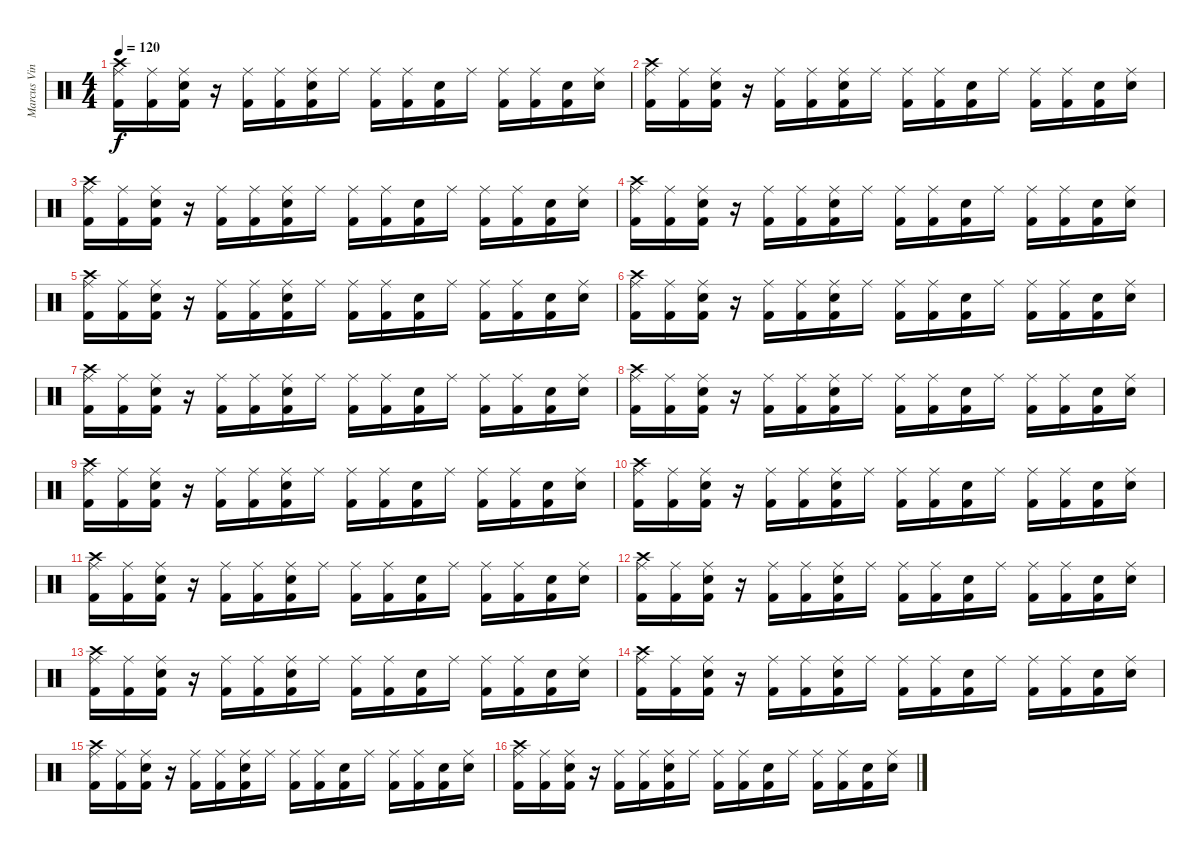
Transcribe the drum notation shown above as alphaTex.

\track ("Marcus Vinicius" "Marcus Vin") {instrument percussion}
\staff {score}
\articulation defaults
\ts (4 4)
\tempo 120
\clef neutral
\ks c
("Kick (hit) 2" "Crash high (hit)" "Ride (middle)").16{dy f} ("Kick (hit) 2" "Ride (middle)").16 ("Kick (hit) 2" "Electric Snare (hit)" "Ride (middle)").16 r.16 ("Kick (hit) 2" "Ride (middle)").16 ("Kick (hit) 2" "Ride (middle)").16 ("Kick (hit) 2" "Electric Snare (hit)" "Ride (middle)").16 "Ride (middle)".16 ("Kick (hit) 2" "Ride (middle)").16 ("Kick (hit) 2" "Ride (middle)").16 ("Kick (hit) 2" "Electric Snare (hit)").16 "Ride (middle)".16 ("Kick (hit) 2" "Ride (middle)").16 ("Kick (hit) 2" "Ride (middle)").16 ("Kick (hit) 2" "Electric Snare (hit)").16 ("Electric Snare (hit)" "Ride (middle)").16 |
("Kick (hit) 2" "Crash high (hit)" "Ride (middle)").16 ("Kick (hit) 2" "Ride (middle)").16 ("Kick (hit) 2" "Electric Snare (hit)" "Ride (middle)").16 r.16 ("Kick (hit) 2" "Ride (middle)").16 ("Kick (hit) 2" "Ride (middle)").16 ("Kick (hit) 2" "Electric Snare (hit)" "Ride (middle)").16 "Ride (middle)".16 ("Kick (hit) 2" "Ride (middle)").16 ("Kick (hit) 2" "Ride (middle)").16 ("Kick (hit) 2" "Electric Snare (hit)").16 "Ride (middle)".16 ("Kick (hit) 2" "Ride (middle)").16 ("Kick (hit) 2" "Ride (middle)").16 ("Kick (hit) 2" "Electric Snare (hit)").16 ("Electric Snare (hit)" "Ride (middle)").16 |
("Kick (hit) 2" "Crash high (hit)" "Ride (middle)").16 ("Kick (hit) 2" "Ride (middle)").16 ("Kick (hit) 2" "Electric Snare (hit)" "Ride (middle)").16 r.16 ("Kick (hit) 2" "Ride (middle)").16 ("Kick (hit) 2" "Ride (middle)").16 ("Kick (hit) 2" "Electric Snare (hit)" "Ride (middle)").16 "Ride (middle)".16 ("Kick (hit) 2" "Ride (middle)").16 ("Kick (hit) 2" "Ride (middle)").16 ("Kick (hit) 2" "Electric Snare (hit)").16 "Ride (middle)".16 ("Kick (hit) 2" "Ride (middle)").16 ("Kick (hit) 2" "Ride (middle)").16 ("Kick (hit) 2" "Electric Snare (hit)").16 ("Electric Snare (hit)" "Ride (middle)").16 |
("Kick (hit) 2" "Crash high (hit)" "Ride (middle)").16 ("Kick (hit) 2" "Ride (middle)").16 ("Kick (hit) 2" "Electric Snare (hit)" "Ride (middle)").16 r.16 ("Kick (hit) 2" "Ride (middle)").16 ("Kick (hit) 2" "Ride (middle)").16 ("Kick (hit) 2" "Electric Snare (hit)" "Ride (middle)").16 "Ride (middle)".16 ("Kick (hit) 2" "Ride (middle)").16 ("Kick (hit) 2" "Ride (middle)").16 ("Kick (hit) 2" "Electric Snare (hit)").16 "Ride (middle)".16 ("Kick (hit) 2" "Ride (middle)").16 ("Kick (hit) 2" "Ride (middle)").16 ("Kick (hit) 2" "Electric Snare (hit)").16 ("Electric Snare (hit)" "Ride (middle)").16 |
("Kick (hit) 2" "Crash high (hit)" "Ride (middle)").16 ("Kick (hit) 2" "Ride (middle)").16 ("Kick (hit) 2" "Electric Snare (hit)" "Ride (middle)").16 r.16 ("Kick (hit) 2" "Ride (middle)").16 ("Kick (hit) 2" "Ride (middle)").16 ("Kick (hit) 2" "Electric Snare (hit)" "Ride (middle)").16 "Ride (middle)".16 ("Kick (hit) 2" "Ride (middle)").16 ("Kick (hit) 2" "Ride (middle)").16 ("Kick (hit) 2" "Electric Snare (hit)").16 "Ride (middle)".16 ("Kick (hit) 2" "Ride (middle)").16 ("Kick (hit) 2" "Ride (middle)").16 ("Kick (hit) 2" "Electric Snare (hit)").16 ("Electric Snare (hit)" "Ride (middle)").16 |
("Kick (hit) 2" "Crash high (hit)" "Ride (middle)").16 ("Kick (hit) 2" "Ride (middle)").16 ("Kick (hit) 2" "Electric Snare (hit)" "Ride (middle)").16 r.16 ("Kick (hit) 2" "Ride (middle)").16 ("Kick (hit) 2" "Ride (middle)").16 ("Kick (hit) 2" "Electric Snare (hit)" "Ride (middle)").16 "Ride (middle)".16 ("Kick (hit) 2" "Ride (middle)").16 ("Kick (hit) 2" "Ride (middle)").16 ("Kick (hit) 2" "Electric Snare (hit)").16 "Ride (middle)".16 ("Kick (hit) 2" "Ride (middle)").16 ("Kick (hit) 2" "Ride (middle)").16 ("Kick (hit) 2" "Electric Snare (hit)").16 ("Electric Snare (hit)" "Ride (middle)").16 |
("Kick (hit) 2" "Crash high (hit)" "Ride (middle)").16 ("Kick (hit) 2" "Ride (middle)").16 ("Kick (hit) 2" "Electric Snare (hit)" "Ride (middle)").16 r.16 ("Kick (hit) 2" "Ride (middle)").16 ("Kick (hit) 2" "Ride (middle)").16 ("Kick (hit) 2" "Electric Snare (hit)" "Ride (middle)").16 "Ride (middle)".16 ("Kick (hit) 2" "Ride (middle)").16 ("Kick (hit) 2" "Ride (middle)").16 ("Kick (hit) 2" "Electric Snare (hit)").16 "Ride (middle)".16 ("Kick (hit) 2" "Ride (middle)").16 ("Kick (hit) 2" "Ride (middle)").16 ("Kick (hit) 2" "Electric Snare (hit)").16 ("Electric Snare (hit)" "Ride (middle)").16 |
("Kick (hit) 2" "Crash high (hit)" "Ride (middle)").16 ("Kick (hit) 2" "Ride (middle)").16 ("Kick (hit) 2" "Electric Snare (hit)" "Ride (middle)").16 r.16 ("Kick (hit) 2" "Ride (middle)").16 ("Kick (hit) 2" "Ride (middle)").16 ("Kick (hit) 2" "Electric Snare (hit)" "Ride (middle)").16 "Ride (middle)".16 ("Kick (hit) 2" "Ride (middle)").16 ("Kick (hit) 2" "Ride (middle)").16 ("Kick (hit) 2" "Electric Snare (hit)").16 "Ride (middle)".16 ("Kick (hit) 2" "Ride (middle)").16 ("Kick (hit) 2" "Ride (middle)").16 ("Kick (hit) 2" "Electric Snare (hit)").16 ("Electric Snare (hit)" "Ride (middle)").16 |
("Kick (hit) 2" "Crash high (hit)" "Ride (middle)").16 ("Kick (hit) 2" "Ride (middle)").16 ("Kick (hit) 2" "Electric Snare (hit)" "Ride (middle)").16 r.16 ("Kick (hit) 2" "Ride (middle)").16 ("Kick (hit) 2" "Ride (middle)").16 ("Kick (hit) 2" "Electric Snare (hit)" "Ride (middle)").16 "Ride (middle)".16 ("Kick (hit) 2" "Ride (middle)").16 ("Kick (hit) 2" "Ride (middle)").16 ("Kick (hit) 2" "Electric Snare (hit)").16 "Ride (middle)".16 ("Kick (hit) 2" "Ride (middle)").16 ("Kick (hit) 2" "Ride (middle)").16 ("Kick (hit) 2" "Electric Snare (hit)").16 ("Electric Snare (hit)" "Ride (middle)").16 |
("Kick (hit) 2" "Crash high (hit)" "Ride (middle)").16 ("Kick (hit) 2" "Ride (middle)").16 ("Kick (hit) 2" "Electric Snare (hit)" "Ride (middle)").16 r.16 ("Kick (hit) 2" "Ride (middle)").16 ("Kick (hit) 2" "Ride (middle)").16 ("Kick (hit) 2" "Electric Snare (hit)" "Ride (middle)").16 "Ride (middle)".16 ("Kick (hit) 2" "Ride (middle)").16 ("Kick (hit) 2" "Ride (middle)").16 ("Kick (hit) 2" "Electric Snare (hit)").16 "Ride (middle)".16 ("Kick (hit) 2" "Ride (middle)").16 ("Kick (hit) 2" "Ride (middle)").16 ("Kick (hit) 2" "Electric Snare (hit)").16 ("Electric Snare (hit)" "Ride (middle)").16 |
("Kick (hit) 2" "Crash high (hit)" "Ride (middle)").16 ("Kick (hit) 2" "Ride (middle)").16 ("Kick (hit) 2" "Electric Snare (hit)" "Ride (middle)").16 r.16 ("Kick (hit) 2" "Ride (middle)").16 ("Kick (hit) 2" "Ride (middle)").16 ("Kick (hit) 2" "Electric Snare (hit)" "Ride (middle)").16 "Ride (middle)".16 ("Kick (hit) 2" "Ride (middle)").16 ("Kick (hit) 2" "Ride (middle)").16 ("Kick (hit) 2" "Electric Snare (hit)").16 "Ride (middle)".16 ("Kick (hit) 2" "Ride (middle)").16 ("Kick (hit) 2" "Ride (middle)").16 ("Kick (hit) 2" "Electric Snare (hit)").16 ("Electric Snare (hit)" "Ride (middle)").16 |
("Kick (hit) 2" "Crash high (hit)" "Ride (middle)").16 ("Kick (hit) 2" "Ride (middle)").16 ("Kick (hit) 2" "Electric Snare (hit)" "Ride (middle)").16 r.16 ("Kick (hit) 2" "Ride (middle)").16 ("Kick (hit) 2" "Ride (middle)").16 ("Kick (hit) 2" "Electric Snare (hit)" "Ride (middle)").16 "Ride (middle)".16 ("Kick (hit) 2" "Ride (middle)").16 ("Kick (hit) 2" "Ride (middle)").16 ("Kick (hit) 2" "Electric Snare (hit)").16 "Ride (middle)".16 ("Kick (hit) 2" "Ride (middle)").16 ("Kick (hit) 2" "Ride (middle)").16 ("Kick (hit) 2" "Electric Snare (hit)").16 ("Electric Snare (hit)" "Ride (middle)").16 |
("Kick (hit) 2" "Crash high (hit)" "Ride (middle)").16 ("Kick (hit) 2" "Ride (middle)").16 ("Kick (hit) 2" "Electric Snare (hit)" "Ride (middle)").16 r.16 ("Kick (hit) 2" "Ride (middle)").16 ("Kick (hit) 2" "Ride (middle)").16 ("Kick (hit) 2" "Electric Snare (hit)" "Ride (middle)").16 "Ride (middle)".16 ("Kick (hit) 2" "Ride (middle)").16 ("Kick (hit) 2" "Ride (middle)").16 ("Kick (hit) 2" "Electric Snare (hit)").16 "Ride (middle)".16 ("Kick (hit) 2" "Ride (middle)").16 ("Kick (hit) 2" "Ride (middle)").16 ("Kick (hit) 2" "Electric Snare (hit)").16 ("Electric Snare (hit)" "Ride (middle)").16 |
("Kick (hit) 2" "Crash high (hit)" "Ride (middle)").16 ("Kick (hit) 2" "Ride (middle)").16 ("Kick (hit) 2" "Electric Snare (hit)" "Ride (middle)").16 r.16 ("Kick (hit) 2" "Ride (middle)").16 ("Kick (hit) 2" "Ride (middle)").16 ("Kick (hit) 2" "Electric Snare (hit)" "Ride (middle)").16 "Ride (middle)".16 ("Kick (hit) 2" "Ride (middle)").16 ("Kick (hit) 2" "Ride (middle)").16 ("Kick (hit) 2" "Electric Snare (hit)").16 "Ride (middle)".16 ("Kick (hit) 2" "Ride (middle)").16 ("Kick (hit) 2" "Ride (middle)").16 ("Kick (hit) 2" "Electric Snare (hit)").16 ("Electric Snare (hit)" "Ride (middle)").16 |
("Kick (hit) 2" "Crash high (hit)" "Ride (middle)").16 ("Kick (hit) 2" "Ride (middle)").16 ("Kick (hit) 2" "Electric Snare (hit)" "Ride (middle)").16 r.16 ("Kick (hit) 2" "Ride (middle)").16 ("Kick (hit) 2" "Ride (middle)").16 ("Kick (hit) 2" "Electric Snare (hit)" "Ride (middle)").16 "Ride (middle)".16 ("Kick (hit) 2" "Ride (middle)").16 ("Kick (hit) 2" "Ride (middle)").16 ("Kick (hit) 2" "Electric Snare (hit)").16 "Ride (middle)".16 ("Kick (hit) 2" "Ride (middle)").16 ("Kick (hit) 2" "Ride (middle)").16 ("Kick (hit) 2" "Electric Snare (hit)").16 ("Electric Snare (hit)" "Ride (middle)").16 |
("Kick (hit) 2" "Crash high (hit)" "Ride (middle)").16 ("Kick (hit) 2" "Ride (middle)").16 ("Kick (hit) 2" "Electric Snare (hit)" "Ride (middle)").16 r.16 ("Kick (hit) 2" "Ride (middle)").16 ("Kick (hit) 2" "Ride (middle)").16 ("Kick (hit) 2" "Electric Snare (hit)" "Ride (middle)").16 "Ride (middle)".16 ("Kick (hit) 2" "Ride (middle)").16 ("Kick (hit) 2" "Ride (middle)").16 ("Kick (hit) 2" "Electric Snare (hit)").16 "Ride (middle)".16 ("Kick (hit) 2" "Ride (middle)").16 ("Kick (hit) 2" "Ride (middle)").16 ("Kick (hit) 2" "Electric Snare (hit)").16 ("Electric Snare (hit)" "Ride (middle)").16
